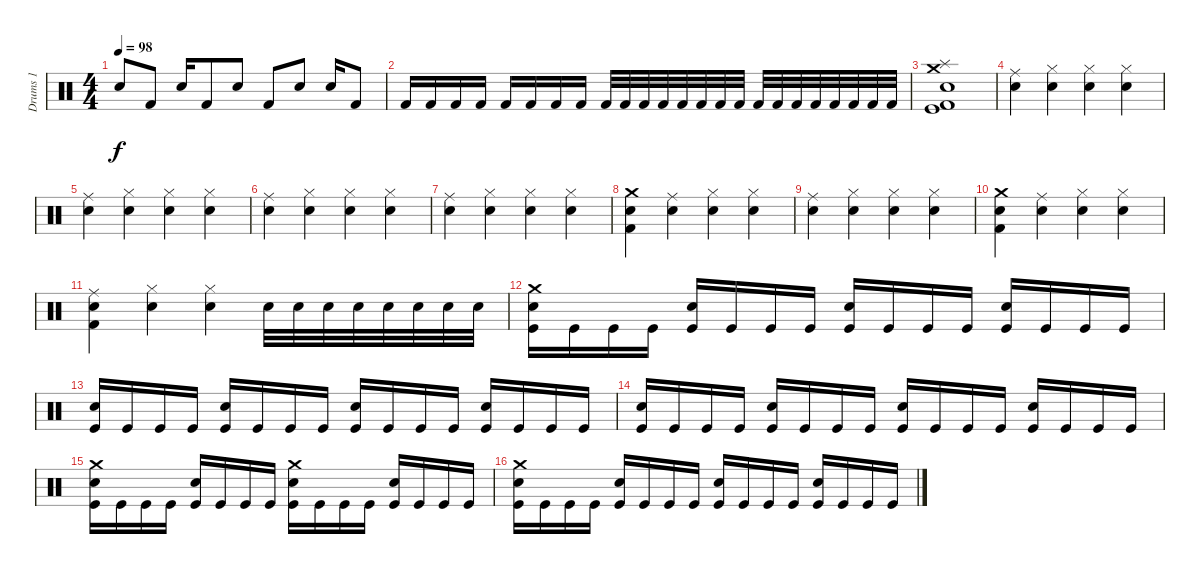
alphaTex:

\track ("Drums 1" "Drums 1") {instrument percussion}
\staff {score}
\articulation defaults
\ts (4 4)
\tempo 98
\clef neutral
\ks c "Snare (hit)"{x}.8{dy f} "Kick (hit) 2".8 "Snare (hit)"{x}.16 "Kick (hit) 2".8 "Snare (hit)"{x}.8 "Kick (hit) 2".8 "Snare (hit) 2".8 "Snare (hit)"{x}.16 "Kick (hit) 2".8
|
"Kick (hit) 2".16 "Kick (hit) 2".16 "Kick (hit) 2".16 "Kick (hit) 2".16 "Kick (hit) 2".16 "Kick (hit) 2".16 "Kick (hit) 2".16 "Kick (hit) 2".16 "Kick (hit) 2".32 "Kick (hit) 2".32 "Kick (hit) 2".32 "Kick (hit) 2".32 "Kick (hit) 2".32 "Kick (hit) 2".32 "Kick (hit) 2".32 "Kick (hit) 2".32 "Kick (hit) 2".32 "Kick (hit) 2".32 "Kick (hit) 2".32 "Kick (hit) 2".32 "Kick (hit) 2".32 "Kick (hit) 2".32 "Kick (hit) 2".32 "Kick (hit) 2".32 |
("Kick (hit)" "Splash (hit)" "Crash medium (hit)" "Kick (hit) 2" "Snare (hit) 2").1 |
("Ride (middle)" "Snare (hit) 2").4 ("Hi-Hat (closed)" "Snare (hit) 2").4 ("Hi-Hat (closed)" "Snare (hit) 2").4 ("Hi-Hat (closed)" "Snare (hit) 2").4 |
("Ride (middle)" "Snare (hit) 2").4 ("Hi-Hat (closed)" "Snare (hit) 2").4 ("Hi-Hat (closed)" "Snare (hit) 2").4 ("Hi-Hat (closed)" "Snare (hit) 2").4 |
("Ride (middle)" "Snare (hit) 2").4 ("Hi-Hat (closed)" "Snare (hit) 2").4 ("Hi-Hat (closed)" "Snare (hit) 2").4 ("Hi-Hat (closed)" "Snare (hit) 2").4 |
("Ride (middle)" "Snare (hit) 2").4 ("Hi-Hat (closed)" "Snare (hit) 2").4 ("Hi-Hat (closed)" "Snare (hit) 2").4 ("Hi-Hat (closed)" "Snare (hit) 2").4 |
("Crash medium (hit)" "Kick (hit) 2" "Snare (hit) 2").4 ("Ride (middle)" "Snare (hit) 2").4 ("Hi-Hat (closed)" "Snare (hit) 2").4 ("Hi-Hat (closed)" "Snare (hit) 2").4 |
("Ride (middle)" "Snare (hit) 2").4 ("Hi-Hat (closed)" "Snare (hit) 2").4 ("Hi-Hat (closed)" "Snare (hit) 2").4 ("Hi-Hat (closed)" "Snare (hit) 2").4 |
("Crash medium (hit)" "Kick (hit) 2" "Snare (hit) 2").4 ("Ride (middle)" "Snare (hit) 2").4 ("Hi-Hat (closed)" "Snare (hit) 2").4 ("Hi-Hat (closed)" "Snare (hit) 2").4 |
("Ride (middle)" "Kick (hit) 2" "Snare (hit) 2").4 ("Hi-Hat (closed)" "Snare (hit) 2").4 ("Hi-Hat (closed)" "Snare (hit) 2").4 "Snare (hit) 2".32 "Snare (hit) 2".32 "Snare (hit) 2".32 "Snare (hit) 2".32 "Snare (hit) 2".32 "Snare (hit) 2".32 "Snare (hit) 2".32 "Snare (hit) 2".32 |
("Crash medium (hit)" "Snare (hit) 2" "Kick (hit)").16 "Kick (hit)".16 "Kick (hit)".16 "Kick (hit)".16 ("Snare (hit) 2" "Kick (hit)").16 "Kick (hit)".16 "Kick (hit)".16 "Kick (hit)".16 ("Snare (hit) 2" "Kick (hit)").16 "Kick (hit)".16 "Kick (hit)".16 "Kick (hit)".16 ("Snare (hit) 2" "Kick (hit)").16 "Kick (hit)".16 "Kick (hit)".16 "Kick (hit)".16 |
("Snare (hit) 2" "Kick (hit)").16 "Kick (hit)".16 "Kick (hit)".16 "Kick (hit)".16 ("Snare (hit) 2" "Kick (hit)").16 "Kick (hit)".16 "Kick (hit)".16 "Kick (hit)".16 ("Snare (hit) 2" "Kick (hit)").16 "Kick (hit)".16 "Kick (hit)".16 "Kick (hit)".16 ("Snare (hit) 2" "Kick (hit)").16 "Kick (hit)".16 "Kick (hit)".16 "Kick (hit)".16 |
("Snare (hit) 2" "Kick (hit)").16 "Kick (hit)".16 "Kick (hit)".16 "Kick (hit)".16 ("Snare (hit) 2" "Kick (hit)").16 "Kick (hit)".16 "Kick (hit)".16 "Kick (hit)".16 ("Snare (hit) 2" "Kick (hit)").16 "Kick (hit)".16 "Kick (hit)".16 "Kick (hit)".16 ("Snare (hit) 2" "Kick (hit)").16 "Kick (hit)".16 "Kick (hit)".16 "Kick (hit)".16 |
("Crash medium (hit)" "Snare (hit) 2" "Kick (hit)").16 "Kick (hit)".16 "Kick (hit)".16 "Kick (hit)".16 ("Snare (hit) 2" "Kick (hit)").16 "Kick (hit)".16 "Kick (hit)".16 "Kick (hit)".16 ("Crash medium (hit)" "Snare (hit) 2" "Kick (hit)").16 "Kick (hit)".16 "Kick (hit)".16 "Kick (hit)".16 ("Snare (hit) 2" "Kick (hit)").16 "Kick (hit)".16 "Kick (hit)".16 "Kick (hit)".16 |
("Crash medium (hit)" "Snare (hit) 2" "Kick (hit)").16 "Kick (hit)".16 "Kick (hit)".16 "Kick (hit)".16 ("Snare (hit) 2" "Kick (hit)").16 "Kick (hit)".16 "Kick (hit)".16 "Kick (hit)".16 ("Snare (hit) 2" "Kick (hit)").16 "Kick (hit)".16 "Kick (hit)".16 "Kick (hit)".16 ("Snare (hit) 2" "Kick (hit)").16 "Kick (hit)".16 "Kick (hit)".16 "Kick (hit)".16
